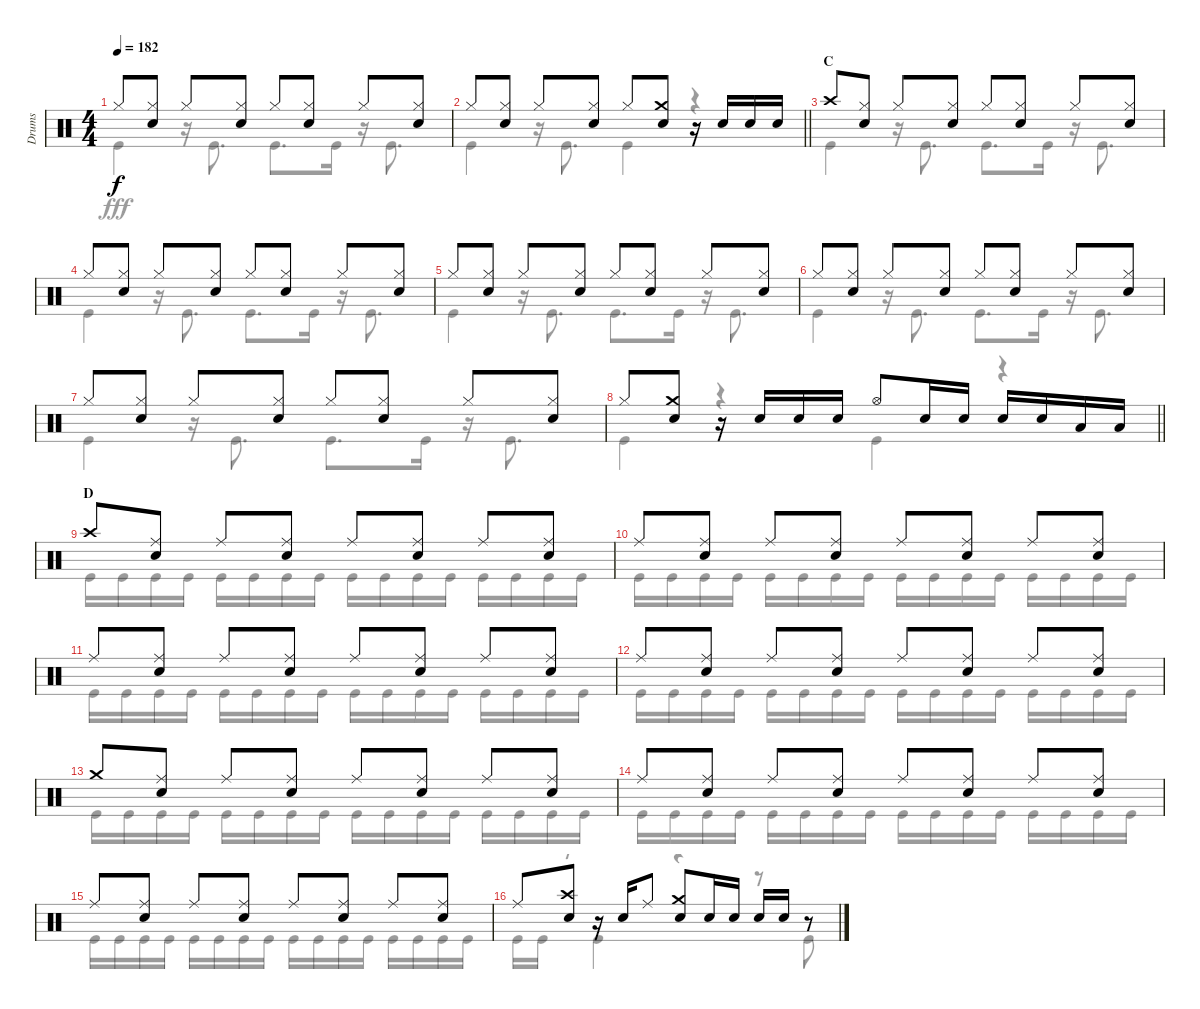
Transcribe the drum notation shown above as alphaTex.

\track ("Drums" "Drums") {instrument percussion}
\staff {score}
\articulation defaults
\voice
\ts (4 4)
\tempo 182
\clef neutral
\ks c "Hi-Hat (closed)".8{dy f}
("Hi-Hat (closed)" "Snare (hit) 2").8 "Hi-Hat (closed)".8 ("Hi-Hat (closed)" "Snare (hit) 2").8 "Hi-Hat (closed)".8 ("Hi-Hat (closed)" "Snare (hit) 2").8 "Hi-Hat (closed)".8 ("Hi-Hat (closed)" "Snare (hit) 2").8 |
\barLineRight lightlight "Hi-Hat (closed)".8
("Hi-Hat (closed)" "Snare (hit) 2").8 "Hi-Hat (closed)".8 ("Hi-Hat (closed)" "Snare (hit) 2").8 "Hi-Hat (closed)".8 ("Crash medium (hit)" "Snare (hit) 2").8 r.16 "Snare (hit) 2".16 "Snare (hit) 2".16 "Snare (hit) 2".16 |
\section ("" "C")
"Crash high (hit)".8 ("Hi-Hat (closed)" "Snare (hit) 2").8 "Hi-Hat (closed)".8 ("Hi-Hat (closed)" "Snare (hit) 2").8 "Hi-Hat (closed)".8 ("Hi-Hat (closed)" "Snare (hit) 2").8 "Hi-Hat (closed)".8 ("Hi-Hat (closed)" "Snare (hit) 2").8 |
"Hi-Hat (closed)".8 ("Hi-Hat (closed)" "Snare (hit) 2").8 "Hi-Hat (closed)".8 ("Hi-Hat (closed)" "Snare (hit) 2").8 "Hi-Hat (closed)".8 ("Hi-Hat (closed)" "Snare (hit) 2").8 "Hi-Hat (closed)".8 ("Hi-Hat (closed)" "Snare (hit) 2").8 |
"Hi-Hat (closed)".8 ("Hi-Hat (closed)" "Snare (hit) 2").8 "Hi-Hat (closed)".8 ("Hi-Hat (closed)" "Snare (hit) 2").8 "Hi-Hat (closed)".8 ("Hi-Hat (closed)" "Snare (hit) 2").8 "Hi-Hat (closed)".8 ("Hi-Hat (closed)" "Snare (hit) 2").8 |
"Hi-Hat (closed)".8 ("Hi-Hat (closed)" "Snare (hit) 2").8 "Hi-Hat (closed)".8 ("Hi-Hat (closed)" "Snare (hit) 2").8 "Hi-Hat (closed)".8 ("Hi-Hat (closed)" "Snare (hit) 2").8 "Hi-Hat (closed)".8 ("Hi-Hat (closed)" "Snare (hit) 2").8 |
"Hi-Hat (closed)".8 ("Hi-Hat (closed)" "Snare (hit) 2").8 "Hi-Hat (closed)".8 ("Hi-Hat (closed)" "Snare (hit) 2").8 "Hi-Hat (closed)".8 ("Hi-Hat (closed)" "Snare (hit) 2").8 "Hi-Hat (closed)".8 ("Hi-Hat (closed)" "Snare (hit) 2").8 |
\barLineRight lightlight "Hi-Hat (closed)".8
("Crash medium (hit)" "Snare (hit) 2").8 r.16 "Snare (hit) 2".16 "Snare (hit) 2".16 "Snare (hit) 2".16 "Hi-Hat (open)".8 "Snare (hit) 2".16 "Snare (hit) 2".16 "Snare (hit) 2".16 "Snare (hit) 2".16 "Low Tom (hit)".16 "Low Tom (hit)".16 |
\section ("" "D")
"Crash high (hit)".8 ("Ride (middle)" "Snare (hit) 2").8 "Ride (middle)".8 ("Ride (middle)" "Snare (hit) 2").8 "Ride (middle)".8 ("Ride (middle)" "Snare (hit) 2").8 "Ride (middle)".8 ("Ride (middle)" "Snare (hit) 2").8 |
"Ride (middle)".8 ("Ride (middle)" "Snare (hit) 2").8 "Ride (middle)".8 ("Ride (middle)" "Snare (hit) 2").8 "Ride (middle)".8 ("Ride (middle)" "Snare (hit) 2").8 "Ride (middle)".8 ("Ride (middle)" "Snare (hit) 2").8 |
"Ride (middle)".8 ("Ride (middle)" "Snare (hit) 2").8 "Ride (middle)".8 ("Ride (middle)" "Snare (hit) 2").8 "Ride (middle)".8 ("Ride (middle)" "Snare (hit) 2").8 "Ride (middle)".8 ("Ride (middle)" "Snare (hit) 2").8 |
"Ride (middle)".8 ("Ride (middle)" "Snare (hit) 2").8 "Ride (middle)".8 ("Ride (middle)" "Snare (hit) 2").8 "Ride (middle)".8 ("Ride (middle)" "Snare (hit) 2").8 "Ride (middle)".8 ("Ride (middle)" "Snare (hit) 2").8 |
"Crash medium (hit)".8 ("Ride (middle)" "Snare (hit) 2").8 "Ride (middle)".8 ("Ride (middle)" "Snare (hit) 2").8 "Ride (middle)".8 ("Ride (middle)" "Snare (hit) 2").8 "Ride (middle)".8 ("Ride (middle)" "Snare (hit) 2").8 |
"Ride (middle)".8 ("Ride (middle)" "Snare (hit) 2").8 "Ride (middle)".8 ("Ride (middle)" "Snare (hit) 2").8 "Ride (middle)".8 ("Ride (middle)" "Snare (hit) 2").8 "Ride (middle)".8 ("Ride (middle)" "Snare (hit) 2").8 |
"Ride (middle)".8 ("Ride (middle)" "Snare (hit) 2").8 "Ride (middle)".8 ("Ride (middle)" "Snare (hit) 2").8 "Ride (middle)".8 ("Ride (middle)" "Snare (hit) 2").8 "Ride (middle)".8 ("Ride (middle)" "Snare (hit) 2").8 |
"Ride (middle)".8 ("Crash high (hit)" "Snare (hit) 2").8 r.16 "Snare (hit) 2".16 "Ride (middle)".8 ("Crash medium (hit)" "Snare (hit) 2").8 "Snare (hit) 2".16 "Snare (hit) 2".16 "Snare (hit) 2".16 "Snare (hit) 2".16 r.8
\voice
\clef neutral
\ottava regular
\simile none
\ks c "Kick (hit)".4{dy fff}
r.16 "Kick (hit)".8{d} "Kick (hit)".8{d} "Kick (hit)".16 r.16 "Kick (hit)".8{d} |
\barLineRight lightlight "Kick (hit)".4
r.16 "Kick (hit)".8{d} "Kick (hit)".4 r.4 |
"Kick (hit)".4 r.16 "Kick (hit)".8{d} "Kick (hit)".8{d} "Kick (hit)".16 r.16 "Kick (hit)".8{d} |
"Kick (hit)".4 r.16 "Kick (hit)".8{d} "Kick (hit)".8{d} "Kick (hit)".16 r.16 "Kick (hit)".8{d} |
"Kick (hit)".4 r.16 "Kick (hit)".8{d} "Kick (hit)".8{d} "Kick (hit)".16 r.16 "Kick (hit)".8{d} |
"Kick (hit)".4 r.16 "Kick (hit)".8{d} "Kick (hit)".8{d} "Kick (hit)".16 r.16 "Kick (hit)".8{d} |
"Kick (hit)".4 r.16 "Kick (hit)".8{d} "Kick (hit)".8{d} "Kick (hit)".16 r.16 "Kick (hit)".8{d} |
\barLineRight lightlight "Kick (hit)".4
r.4 "Kick (hit)".4 r.4 |
"Kick (hit)".16 "Kick (hit)".16 "Kick (hit)".16 "Kick (hit)".16 "Kick (hit)".16 "Kick (hit)".16 "Kick (hit)".16 "Kick (hit)".16 "Kick (hit)".16 "Kick (hit)".16 "Kick (hit)".16 "Kick (hit)".16 "Kick (hit)".16 "Kick (hit)".16 "Kick (hit)".16 "Kick (hit)".16 |
"Kick (hit)".16 "Kick (hit)".16 "Kick (hit)".16 "Kick (hit)".16 "Kick (hit)".16 "Kick (hit)".16 "Kick (hit)".16 "Kick (hit)".16 "Kick (hit)".16 "Kick (hit)".16 "Kick (hit)".16 "Kick (hit)".16 "Kick (hit)".16 "Kick (hit)".16 "Kick (hit)".16 "Kick (hit)".16 |
"Kick (hit)".16 "Kick (hit)".16 "Kick (hit)".16 "Kick (hit)".16 "Kick (hit)".16 "Kick (hit)".16 "Kick (hit)".16 "Kick (hit)".16 "Kick (hit)".16 "Kick (hit)".16 "Kick (hit)".16 "Kick (hit)".16 "Kick (hit)".16 "Kick (hit)".16 "Kick (hit)".16 "Kick (hit)".16 |
"Kick (hit)".16 "Kick (hit)".16 "Kick (hit)".16 "Kick (hit)".16 "Kick (hit)".16 "Kick (hit)".16 "Kick (hit)".16 "Kick (hit)".16 "Kick (hit)".16 "Kick (hit)".16 "Kick (hit)".16 "Kick (hit)".16 "Kick (hit)".16 "Kick (hit)".16 "Kick (hit)".16 "Kick (hit)".16 |
"Kick (hit)".16 "Kick (hit)".16 "Kick (hit)".16 "Kick (hit)".16 "Kick (hit)".16 "Kick (hit)".16 "Kick (hit)".16 "Kick (hit)".16 "Kick (hit)".16 "Kick (hit)".16 "Kick (hit)".16 "Kick (hit)".16 "Kick (hit)".16 "Kick (hit)".16 "Kick (hit)".16 "Kick (hit)".16 |
"Kick (hit)".16 "Kick (hit)".16 "Kick (hit)".16 "Kick (hit)".16 "Kick (hit)".16 "Kick (hit)".16 "Kick (hit)".16 "Kick (hit)".16 "Kick (hit)".16 "Kick (hit)".16 "Kick (hit)".16 "Kick (hit)".16 "Kick (hit)".16 "Kick (hit)".16 "Kick (hit)".16 "Kick (hit)".16 |
"Kick (hit)".16 "Kick (hit)".16 "Kick (hit)".16 "Kick (hit)".16 "Kick (hit)".16 "Kick (hit)".16 "Kick (hit)".16 "Kick (hit)".16 "Kick (hit)".16 "Kick (hit)".16 "Kick (hit)".16 "Kick (hit)".16 "Kick (hit)".16 "Kick (hit)".16 "Kick (hit)".16 "Kick (hit)".16 |
"Kick (hit)".16 "Kick (hit)".16 r.8 "Kick (hit)".4 r.4 r.8 "Kick (hit)".8
